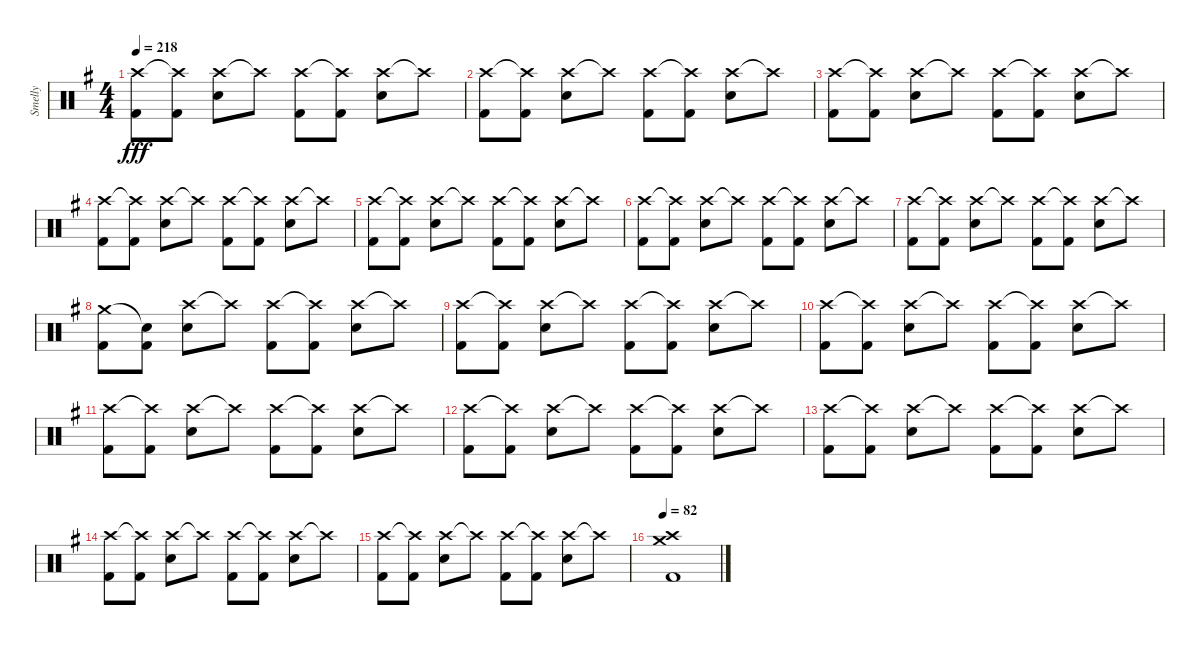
\track ("Smelly" "Smelly") {instrument percussion}
\staff {score}
\articulation defaults
\ts (4 4)
\tempo 218
\clef neutral
\ks eminor
("Crash high (hit)" "Kick (hit) 2").8{dy fff} ("Crash high (hit)"{t} "Kick (hit) 2").8 ("Crash high (hit)" "Electric Snare (hit)").8 "Crash high (hit)"{t}.8 ("Crash high (hit)" "Kick (hit) 2").8 ("Crash high (hit)"{t} "Kick (hit) 2").8 ("Crash high (hit)" "Electric Snare (hit)").8 "Crash high (hit)"{t}.8 |
("Crash high (hit)" "Kick (hit) 2").8 ("Crash high (hit)"{t} "Kick (hit) 2").8 ("Crash high (hit)" "Electric Snare (hit)").8 "Crash high (hit)"{t}.8 ("Crash high (hit)" "Kick (hit) 2").8 ("Crash high (hit)"{t} "Kick (hit) 2").8 ("Crash high (hit)" "Electric Snare (hit)").8 "Crash high (hit)"{t}.8 |
("Crash high (hit)" "Kick (hit) 2").8 ("Crash high (hit)"{t} "Kick (hit) 2").8 ("Crash high (hit)" "Electric Snare (hit)").8 "Crash high (hit)"{t}.8 ("Crash high (hit)" "Kick (hit) 2").8 ("Crash high (hit)"{t} "Kick (hit) 2").8 ("Crash high (hit)" "Electric Snare (hit)").8 "Crash high (hit)"{t}.8 |
("Crash high (hit)" "Kick (hit) 2").8 ("Crash high (hit)"{t} "Kick (hit) 2").8 ("Crash high (hit)" "Electric Snare (hit)").8 "Crash high (hit)"{t}.8 ("Crash high (hit)" "Kick (hit) 2").8 ("Crash high (hit)"{t} "Kick (hit) 2").8 ("Crash high (hit)" "Electric Snare (hit)").8 "Crash high (hit)"{t}.8 |
("Crash high (hit)" "Kick (hit) 2").8 ("Crash high (hit)"{t} "Kick (hit) 2").8 ("Crash high (hit)" "Electric Snare (hit)").8 "Crash high (hit)"{t}.8 ("Crash high (hit)" "Kick (hit) 2").8 ("Crash high (hit)"{t} "Kick (hit) 2").8 ("Crash high (hit)" "Electric Snare (hit)").8 "Crash high (hit)"{t}.8 |
("Crash high (hit)" "Kick (hit) 2").8 ("Crash high (hit)"{t} "Kick (hit) 2").8 ("Crash high (hit)" "Electric Snare (hit)").8 "Crash high (hit)"{t}.8 ("Crash high (hit)" "Kick (hit) 2").8 ("Crash high (hit)"{t} "Kick (hit) 2").8 ("Crash high (hit)" "Electric Snare (hit)").8 "Crash high (hit)"{t}.8 |
("Crash high (hit)" "Kick (hit) 2").8 ("Crash high (hit)"{t} "Kick (hit) 2").8 ("Crash high (hit)" "Electric Snare (hit)").8 "Crash high (hit)"{t}.8 ("Crash high (hit)" "Kick (hit) 2").8 ("Crash high (hit)"{t} "Kick (hit) 2").8 ("Crash high (hit)" "Electric Snare (hit)").8 "Crash high (hit)"{t}.8 |
("Crash medium (hit)" "Kick (hit) 2").8 ("Snare (hit)"{t} "Kick (hit) 2").8 ("Crash high (hit)" "Electric Snare (hit)").8 "Crash high (hit)"{t}.8 ("Crash high (hit)" "Kick (hit) 2").8 ("Crash high (hit)"{t} "Kick (hit) 2").8 ("Crash high (hit)" "Electric Snare (hit)").8 "Crash high (hit)"{t}.8 |
("Crash high (hit)" "Kick (hit) 2").8 ("Crash high (hit)"{t} "Kick (hit) 2").8 ("Crash high (hit)" "Electric Snare (hit)").8 "Crash high (hit)"{t}.8 ("Crash high (hit)" "Kick (hit) 2").8 ("Crash high (hit)"{t} "Kick (hit) 2").8 ("Crash high (hit)" "Electric Snare (hit)").8 "Crash high (hit)"{t}.8 |
("Crash high (hit)" "Kick (hit) 2").8 ("Crash high (hit)"{t} "Kick (hit) 2").8 ("Crash high (hit)" "Electric Snare (hit)").8 "Crash high (hit)"{t}.8 ("Crash high (hit)" "Kick (hit) 2").8 ("Crash high (hit)"{t} "Kick (hit) 2").8 ("Crash high (hit)" "Electric Snare (hit)").8 "Crash high (hit)"{t}.8 |
("Crash high (hit)" "Kick (hit) 2").8 ("Crash high (hit)"{t} "Kick (hit) 2").8 ("Crash high (hit)" "Electric Snare (hit)").8 "Crash high (hit)"{t}.8 ("Crash high (hit)" "Kick (hit) 2").8 ("Crash high (hit)"{t} "Kick (hit) 2").8 ("Crash high (hit)" "Electric Snare (hit)").8 "Crash high (hit)"{t}.8 |
("Crash high (hit)" "Kick (hit) 2").8 ("Crash high (hit)"{t} "Kick (hit) 2").8 ("Crash high (hit)" "Electric Snare (hit)").8 "Crash high (hit)"{t}.8 ("Crash high (hit)" "Kick (hit) 2").8 ("Crash high (hit)"{t} "Kick (hit) 2").8 ("Crash high (hit)" "Electric Snare (hit)").8 "Crash high (hit)"{t}.8 |
("Crash high (hit)" "Kick (hit) 2").8 ("Crash high (hit)"{t} "Kick (hit) 2").8 ("Crash high (hit)" "Electric Snare (hit)").8 "Crash high (hit)"{t}.8 ("Crash high (hit)" "Kick (hit) 2").8 ("Crash high (hit)"{t} "Kick (hit) 2").8 ("Crash high (hit)" "Electric Snare (hit)").8 "Crash high (hit)"{t}.8 |
("Crash high (hit)" "Kick (hit) 2").8 ("Crash high (hit)"{t} "Kick (hit) 2").8 ("Crash high (hit)" "Electric Snare (hit)").8 "Crash high (hit)"{t}.8 ("Crash high (hit)" "Kick (hit) 2").8 ("Crash high (hit)"{t} "Kick (hit) 2").8 ("Crash high (hit)" "Electric Snare (hit)").8 "Crash high (hit)"{t}.8 |
("Crash high (hit)" "Kick (hit) 2").8 ("Crash high (hit)"{t} "Kick (hit) 2").8 ("Crash high (hit)" "Electric Snare (hit)").8 "Crash high (hit)"{t}.8 ("Crash high (hit)" "Kick (hit) 2").8 ("Crash high (hit)"{t} "Kick (hit) 2").8 ("Crash high (hit)" "Electric Snare (hit)").8 "Crash high (hit)"{t}.8 |
\tempo 82
("Crash medium (hit)" "Crash high (hit)" "Kick (hit) 2").1
